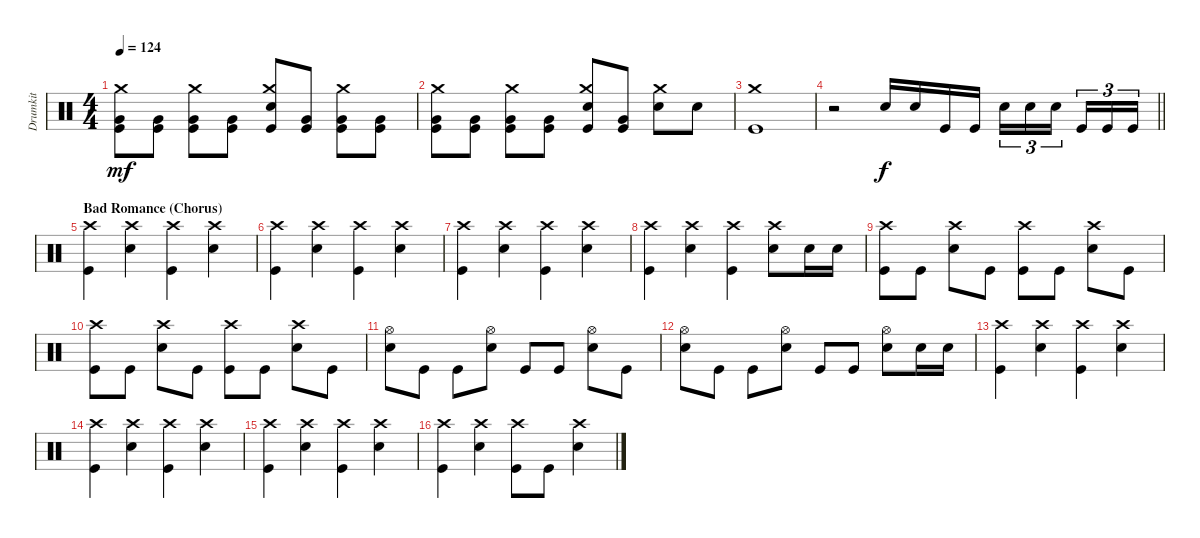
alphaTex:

\track ("Drumkit" "Drumkit") {instrument percussion}
\staff {score}
\articulation defaults
\ts (4 4)
\tempo 124
\clef neutral
\ks c
("Kick (hit)" "Very Low Tom (hit)" "Crash medium (hit)").8{dy mf} ("Kick (hit)" "Very Low Tom (hit)").8 ("Kick (hit)" "Very Low Tom (hit)" "Crash medium (hit)").8 ("Kick (hit)" "Very Low Tom (hit)").8 ("Kick (hit)" "Snare (hit) 2" "Crash medium (hit)").8 ("Kick (hit)" "Very Low Tom (hit)").8 ("Kick (hit)" "Very Low Tom (hit)" "Crash medium (hit)").8 ("Kick (hit)" "Very Low Tom (hit)").8 |
("Kick (hit)" "Very Low Tom (hit)" "Crash medium (hit)").8 ("Kick (hit)" "Very Low Tom (hit)").8 ("Kick (hit)" "Very Low Tom (hit)" "Crash medium (hit)").8 ("Kick (hit)" "Very Low Tom (hit)").8 ("Kick (hit)" "Snare (hit) 2" "Crash medium (hit)").8 ("Kick (hit)" "Very Low Tom (hit)").8 ("Crash medium (hit)" "Snare (hit) 2").8 "Snare (hit) 2".8 |
("Crash medium (hit)" "Kick (hit)").1 |
\barLineRight lightlight
r.2 "Snare (hit) 2".16{dy f} "Snare (hit) 2".16 "Kick (hit)".16 "Kick (hit)".16 "Snare (hit) 2".16{tu (3 2)} "Snare (hit) 2".16{tu (3 2)} "Snare (hit) 2".16{tu (3 2)} "Kick (hit)".16{tu (3 2)} "Kick (hit)".16{tu (3 2)} "Kick (hit)".16{tu (3 2)} |
\section ("" "Bad Romance (Chorus)")
("Kick (hit)" "Crash high (hit)").4 ("Snare (hit) 2" "Crash high (hit)").4 ("Kick (hit)" "Crash high (hit)").4 ("Snare (hit) 2" "Crash high (hit)").4 |
("Kick (hit)" "Crash high (hit)").4 ("Snare (hit) 2" "Crash high (hit)").4 ("Kick (hit)" "Crash high (hit)").4 ("Snare (hit) 2" "Crash high (hit)").4 |
("Kick (hit)" "Crash high (hit)").4 ("Snare (hit) 2" "Crash high (hit)").4 ("Kick (hit)" "Crash high (hit)").4 ("Snare (hit) 2" "Crash high (hit)").4 |
("Kick (hit)" "Crash high (hit)").4 ("Snare (hit) 2" "Crash high (hit)").4 ("Kick (hit)" "Crash high (hit)").4 ("Snare (hit) 2" "Crash high (hit)").8 "Snare (hit) 2".16 "Snare (hit) 2".16 |
("Kick (hit)" "Crash high (hit)").8 "Kick (hit)".8 ("Snare (hit) 2" "Crash high (hit)").8 "Kick (hit)".8 ("Kick (hit)" "Crash high (hit)").8 "Kick (hit)".8 ("Snare (hit) 2" "Crash high (hit)").8 "Kick (hit)".8 |
("Kick (hit)" "Crash high (hit)").8 "Kick (hit)".8 ("Snare (hit) 2" "Crash high (hit)").8 "Kick (hit)".8 ("Kick (hit)" "Crash high (hit)").8 "Kick (hit)".8 ("Snare (hit) 2" "Crash high (hit)").8 "Kick (hit)".8 |
("Snare (hit) 2" "Hi-Hat (open)").8 "Kick (hit)".8 "Kick (hit)".8 ("Snare (hit) 2" "Hi-Hat (open)").8 "Kick (hit)".8 "Kick (hit)".8 ("Snare (hit) 2" "Hi-Hat (open)").8 "Kick (hit)".8 |
("Snare (hit) 2" "Hi-Hat (open)").8 "Kick (hit)".8 "Kick (hit)".8 ("Snare (hit) 2" "Hi-Hat (open)").8 "Kick (hit)".8 "Kick (hit)".8 ("Snare (hit) 2" "Hi-Hat (open)").8 "Snare (hit) 2".16 "Snare (hit) 2".16 |
("Kick (hit)" "Crash high (hit)").4 ("Snare (hit) 2" "Crash high (hit)").4 ("Kick (hit)" "Crash high (hit)").4 ("Snare (hit) 2" "Crash high (hit)").4 |
("Kick (hit)" "Crash high (hit)").4 ("Snare (hit) 2" "Crash high (hit)").4 ("Kick (hit)" "Crash high (hit)").4 ("Snare (hit) 2" "Crash high (hit)").4 |
("Kick (hit)" "Crash high (hit)").4 ("Snare (hit) 2" "Crash high (hit)").4 ("Kick (hit)" "Crash high (hit)").4 ("Snare (hit) 2" "Crash high (hit)").4 |
("Kick (hit)" "Crash high (hit)").4 ("Snare (hit) 2" "Crash high (hit)").4 ("Kick (hit)" "Crash high (hit)").8 "Kick (hit)".8 ("Snare (hit) 2" "Crash high (hit)").4
